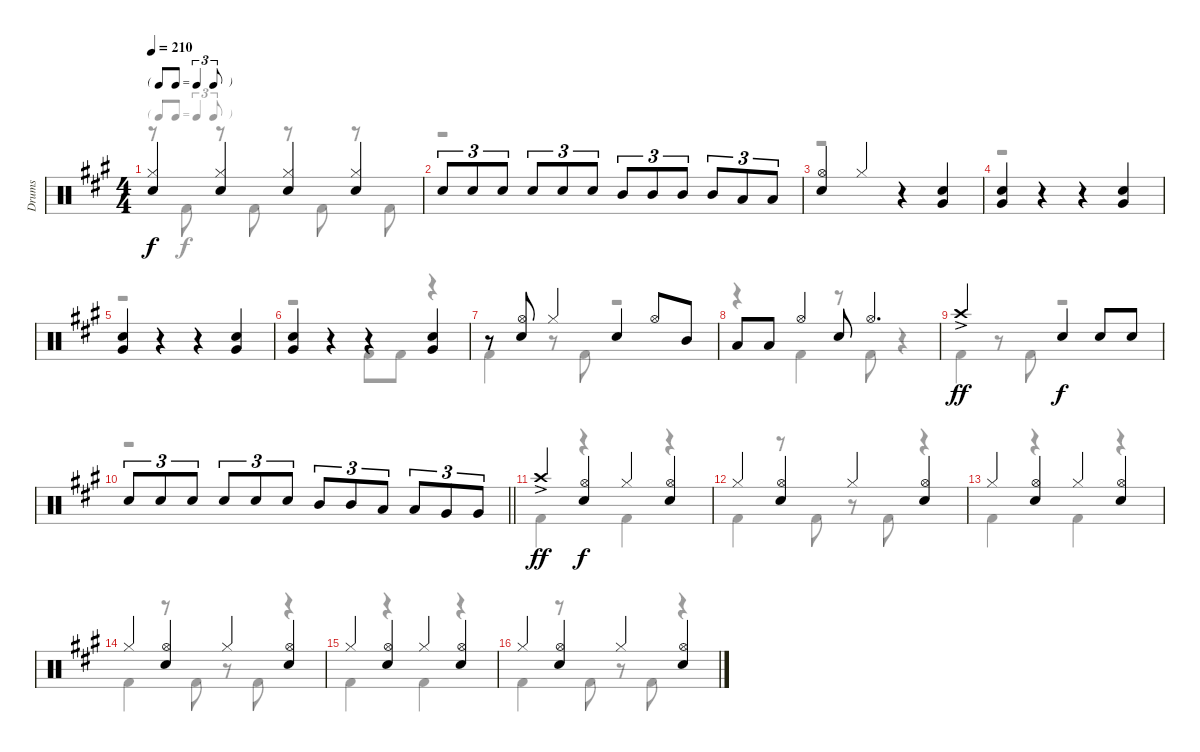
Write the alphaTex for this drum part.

\track ("Drums" "Drums") {instrument percussion}
\staff {score}
\articulation defaults
\voice
\ts (4 4)
\tf triplet8th
\tempo 210
\clef neutral
\ks a
("Hi-Hat (closed)" "Snare (hit) 2").4{dy f} ("Hi-Hat (closed)" "Snare (hit) 2").4 ("Hi-Hat (closed)" "Snare (hit) 2").4 ("Hi-Hat (closed)" "Snare (hit) 2").4 |
"Snare (hit) 2".8{tu (3 2)} "Snare (hit) 2".8{tu (3 2)} "Snare (hit) 2".8{tu (3 2)} "Snare (hit) 2".8{tu (3 2)} "Snare (hit) 2".8{tu (3 2)} "Snare (hit) 2".8{tu (3 2)} "Mid Tom (hit)".8{tu (3 2)} "Mid Tom (hit)".8{tu (3 2)} "Mid Tom (hit)".8{tu (3 2)} "Mid Tom (hit)".8{tu (3 2)} "Low Tom (hit)".8{tu (3 2)} "Low Tom (hit)".8{tu (3 2)} |
("Hi-Hat (open)" "Snare (hit) 2").4 "Hi-Hat (closed)".4 r.4 ("Snare (hit) 2" "Very Low Tom (hit)").4 |
("Snare (hit) 2" "Very Low Tom (hit)").4 r.4 r.4 ("Snare (hit) 2" "Very Low Tom (hit)").4 |
("Snare (hit) 2" "Very Low Tom (hit)").4 r.4 r.4 ("Snare (hit) 2" "Very Low Tom (hit)").4 |
("Snare (hit) 2" "Very Low Tom (hit)").4 r.4 r.4 ("Snare (hit) 2" "Very Low Tom (hit)").4 |
r.8 ("Hi-Hat (open)" "Snare (hit) 2").8 "Hi-Hat (closed)".4 "Snare (hit) 2".4 "Hi-Hat (open)".8 "Mid Tom (hit)".8 |
"Low Tom (hit)".8 "Low Tom (hit)".8 "Hi-Hat (open)".4 "Snare (hit) 2".8 "Hi-Hat (open)".4{d} |
"Crash high (hit)"{ac}.2{dy ff} "Snare (hit) 2".4{dy f} "Snare (hit) 2".8 "Snare (hit) 2".8 |
\barLineRight lightlight "Snare (hit) 2".8{tu (3 2)} "Snare (hit) 2".8{tu (3 2)} "Snare (hit) 2".8{tu (3 2)} "Snare (hit) 2".8{tu (3 2)} "Snare (hit) 2".8{tu (3 2)} "Snare (hit) 2".8{tu (3 2)} "Mid Tom (hit)".8{tu (3 2)} "Mid Tom (hit)".8{tu (3 2)} "Low Tom (hit)".8{tu (3 2)} "Low Tom (hit)".8{tu (3 2)} "Very Low Tom (hit)".8{tu (3 2)} "Very Low Tom (hit)".8{tu (3 2)}
|
"Crash high (hit)"{ac}.4{dy ff} ("Hi-Hat (open)" "Snare (hit) 2").4{dy f} "Hi-Hat (closed)".4 ("Hi-Hat (open)" "Snare (hit) 2").4 |
"Hi-Hat (closed)".4 ("Hi-Hat (open)" "Snare (hit) 2").4 "Hi-Hat (closed)".4 ("Hi-Hat (open)" "Snare (hit) 2").4 |
"Hi-Hat (closed)".4 ("Hi-Hat (open)" "Snare (hit) 2").4 "Hi-Hat (closed)".4 ("Hi-Hat (open)" "Snare (hit) 2").4 |
"Hi-Hat (closed)".4 ("Hi-Hat (open)" "Snare (hit) 2").4 "Hi-Hat (closed)".4 ("Hi-Hat (open)" "Snare (hit) 2").4 |
"Hi-Hat (closed)".4 ("Hi-Hat (open)" "Snare (hit) 2").4 "Hi-Hat (closed)".4 ("Hi-Hat (open)" "Snare (hit) 2").4 |
"Hi-Hat (closed)".4 ("Hi-Hat (open)" "Snare (hit) 2").4 "Hi-Hat (closed)".4 ("Hi-Hat (open)" "Snare (hit) 2").4
\voice
\clef neutral
\ottava regular
\simile none
\ks a
r.8{dy f} "Kick (hit) 2".8 r.8 "Kick (hit) 2".8 r.8 "Kick (hit) 2".8 r.8 "Kick (hit) 2".8 |
r.1 |
r.1 |
r.1 |
r.1 |
r.2 "Kick (hit) 2".8 "Kick (hit) 2".8 r.4 |
"Kick (hit) 2".4 r.8 "Kick (hit) 2".8 r.2 |
r.4 "Kick (hit) 2".4 r.8 "Kick (hit) 2".8 r.4 |
"Kick (hit) 2".4 r.8 "Kick (hit) 2".8 r.2 |
\barLineRight lightlight
r.1 |
"Kick (hit) 2".4 r.4 "Kick (hit) 2".4 r.4 |
"Kick (hit) 2".4 r.8 "Kick (hit) 2".8 r.8 "Kick (hit) 2".8 r.4 |
"Kick (hit) 2".4 r.4 "Kick (hit) 2".4 r.4 |
"Kick (hit) 2".4 r.8 "Kick (hit) 2".8 r.8 "Kick (hit) 2".8 r.4 |
"Kick (hit) 2".4 r.4 "Kick (hit) 2".4 r.4 |
"Kick (hit) 2".4 r.8 "Kick (hit) 2".8 r.8 "Kick (hit) 2".8 r.4
